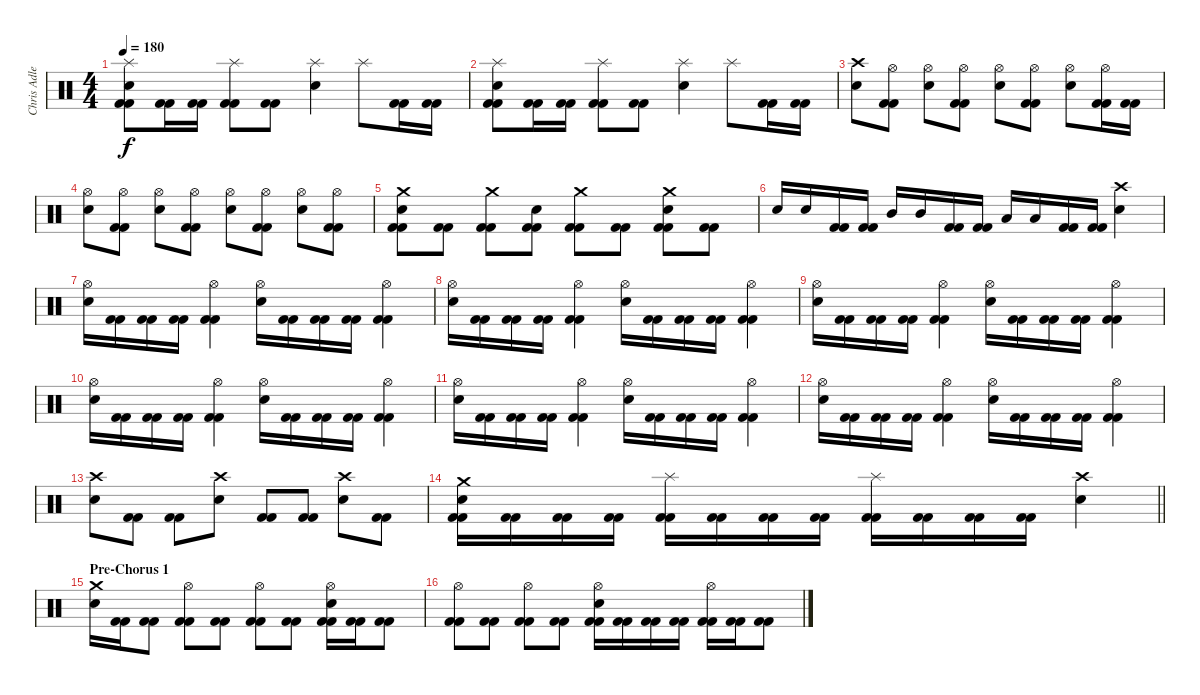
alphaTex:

\track ("Chris Adler" "Chris Adle") {instrument percussion}
\staff {score}
\articulation defaults
\ts (4 4)
\tempo 180
\clef neutral
\ks c
("Splash (hit)" "Electric Snare (hit)" "Kick (hit) 2" "Kick (hit) 2").8{dy f} ("Kick (hit) 2" "Kick (hit) 2").16 ("Kick (hit) 2" "Kick (hit) 2").16 ("Splash (hit)" "Kick (hit) 2" "Kick (hit) 2").8 ("Kick (hit) 2" "Kick (hit) 2").8 ("Splash (hit)" "Electric Snare (hit)").4 "Splash (hit)".8 ("Kick (hit) 2" "Kick (hit) 2").16 ("Kick (hit) 2" "Kick (hit) 2").16 |
("Splash (hit)" "Electric Snare (hit)" "Kick (hit) 2" "Kick (hit) 2").8 ("Kick (hit) 2" "Kick (hit) 2").16 ("Kick (hit) 2" "Kick (hit) 2").16 ("Splash (hit)" "Kick (hit) 2" "Kick (hit) 2").8 ("Kick (hit) 2" "Kick (hit) 2").8 ("Splash (hit)" "Electric Snare (hit)").4 "Splash (hit)".8 ("Kick (hit) 2" "Kick (hit) 2").16 ("Kick (hit) 2" "Kick (hit) 2").16 |
("Crash high (hit)" "Electric Snare (hit)").8 ("Hi-Hat (open)" "Kick (hit) 2" "Kick (hit) 2").8 ("Hi-Hat (open)" "Electric Snare (hit)").8 ("Hi-Hat (open)" "Kick (hit) 2" "Kick (hit) 2").8 ("Hi-Hat (open)" "Electric Snare (hit)").8 ("Hi-Hat (open)" "Kick (hit) 2" "Kick (hit) 2").8 ("Hi-Hat (open)" "Electric Snare (hit)").8 ("Hi-Hat (open)" "Kick (hit) 2" "Kick (hit) 2").16 ("Kick (hit) 2" "Kick (hit) 2").16 |
("Hi-Hat (open)" "Electric Snare (hit)").8 ("Hi-Hat (open)" "Kick (hit) 2" "Kick (hit) 2").8 ("Hi-Hat (open)" "Electric Snare (hit)").8 ("Hi-Hat (open)" "Kick (hit) 2" "Kick (hit) 2").8 ("Hi-Hat (open)" "Electric Snare (hit)").8 ("Hi-Hat (open)" "Kick (hit) 2" "Kick (hit) 2").8 ("Hi-Hat (open)" "Electric Snare (hit)").8 ("Hi-Hat (open)" "Kick (hit) 2" "Kick (hit) 2").8 |
("Crash medium (hit)" "Electric Snare (hit)" "Kick (hit) 2" "Kick (hit) 2").8 ("Kick (hit) 2" "Kick (hit) 2").8 ("Crash medium (hit)" "Kick (hit) 2" "Kick (hit) 2").8 ("Electric Snare (hit)" "Kick (hit) 2" "Kick (hit) 2").8 ("Crash medium (hit)" "Kick (hit) 2" "Kick (hit) 2").8 ("Kick (hit) 2" "Kick (hit) 2").8 ("Crash medium (hit)" "Electric Snare (hit)" "Kick (hit) 2" "Kick (hit) 2").8 ("Kick (hit) 2" "Kick (hit) 2").8 |
"Electric Snare (hit)".16 "Electric Snare (hit)".16 ("Kick (hit) 2" "Kick (hit) 2").16 ("Kick (hit) 2" "Kick (hit) 2").16 "Mid Tom (hit)".16 "Mid Tom (hit)".16 ("Kick (hit) 2" "Kick (hit) 2").16 ("Kick (hit) 2" "Kick (hit) 2").16 "Low Tom (hit)".16 "Low Tom (hit)".16 ("Kick (hit) 2" "Kick (hit) 2").16 ("Kick (hit) 2" "Kick (hit) 2").16 ("Crash high (hit)" "Electric Snare (hit)").4 |
("Hi-Hat (open)" "Electric Snare (hit)").16 ("Kick (hit) 2" "Kick (hit) 2").16 ("Kick (hit) 2" "Kick (hit) 2").16 ("Kick (hit) 2" "Kick (hit) 2").16 ("Hi-Hat (open)" "Kick (hit) 2" "Kick (hit) 2").4 ("Hi-Hat (open)" "Electric Snare (hit)").16 ("Kick (hit) 2" "Kick (hit) 2").16 ("Kick (hit) 2" "Kick (hit) 2").16 ("Kick (hit) 2" "Kick (hit) 2").16 ("Hi-Hat (open)" "Kick (hit) 2" "Kick (hit) 2").4 |
("Hi-Hat (open)" "Electric Snare (hit)").16 ("Kick (hit) 2" "Kick (hit) 2").16 ("Kick (hit) 2" "Kick (hit) 2").16 ("Kick (hit) 2" "Kick (hit) 2").16 ("Hi-Hat (open)" "Kick (hit) 2" "Kick (hit) 2").4 ("Hi-Hat (open)" "Electric Snare (hit)").16 ("Kick (hit) 2" "Kick (hit) 2").16 ("Kick (hit) 2" "Kick (hit) 2").16 ("Kick (hit) 2" "Kick (hit) 2").16 ("Hi-Hat (open)" "Kick (hit) 2" "Kick (hit) 2").4 |
("Hi-Hat (open)" "Electric Snare (hit)").16 ("Kick (hit) 2" "Kick (hit) 2").16 ("Kick (hit) 2" "Kick (hit) 2").16 ("Kick (hit) 2" "Kick (hit) 2").16 ("Hi-Hat (open)" "Kick (hit) 2" "Kick (hit) 2").4 ("Hi-Hat (open)" "Electric Snare (hit)").16 ("Kick (hit) 2" "Kick (hit) 2").16 ("Kick (hit) 2" "Kick (hit) 2").16 ("Kick (hit) 2" "Kick (hit) 2").16 ("Hi-Hat (open)" "Kick (hit) 2" "Kick (hit) 2").4 |
("Hi-Hat (open)" "Electric Snare (hit)").16 ("Kick (hit) 2" "Kick (hit) 2").16 ("Kick (hit) 2" "Kick (hit) 2").16 ("Kick (hit) 2" "Kick (hit) 2").16 ("Hi-Hat (open)" "Kick (hit) 2" "Kick (hit) 2").4 ("Hi-Hat (open)" "Electric Snare (hit)").16 ("Kick (hit) 2" "Kick (hit) 2").16 ("Kick (hit) 2" "Kick (hit) 2").16 ("Kick (hit) 2" "Kick (hit) 2").16 ("Hi-Hat (open)" "Kick (hit) 2" "Kick (hit) 2").4 |
("Hi-Hat (open)" "Electric Snare (hit)").16 ("Kick (hit) 2" "Kick (hit) 2").16 ("Kick (hit) 2" "Kick (hit) 2").16 ("Kick (hit) 2" "Kick (hit) 2").16 ("Hi-Hat (open)" "Kick (hit) 2" "Kick (hit) 2").4 ("Hi-Hat (open)" "Electric Snare (hit)").16 ("Kick (hit) 2" "Kick (hit) 2").16 ("Kick (hit) 2" "Kick (hit) 2").16 ("Kick (hit) 2" "Kick (hit) 2").16 ("Hi-Hat (open)" "Kick (hit) 2" "Kick (hit) 2").4 |
("Hi-Hat (open)" "Electric Snare (hit)").16 ("Kick (hit) 2" "Kick (hit) 2").16 ("Kick (hit) 2" "Kick (hit) 2").16 ("Kick (hit) 2" "Kick (hit) 2").16 ("Hi-Hat (open)" "Kick (hit) 2" "Kick (hit) 2").4 ("Hi-Hat (open)" "Electric Snare (hit)").16 ("Kick (hit) 2" "Kick (hit) 2").16 ("Kick (hit) 2" "Kick (hit) 2").16 ("Kick (hit) 2" "Kick (hit) 2").16 ("Hi-Hat (open)" "Kick (hit) 2" "Kick (hit) 2").4 |
("Crash high (hit)" "Electric Snare (hit)").8 ("Kick (hit) 2" "Kick (hit) 2").8 ("Kick (hit) 2" "Kick (hit) 2").8 ("Crash high (hit)" "Electric Snare (hit)").8 ("Kick (hit) 2" "Kick (hit) 2").8 ("Kick (hit) 2" "Kick (hit) 2").8 ("Crash high (hit)" "Electric Snare (hit)").8 ("Kick (hit) 2" "Kick (hit) 2").8 |
\barLineRight lightlight
("Crash medium (hit)" "Electric Snare (hit)" "Kick (hit) 2" "Kick (hit) 2").16 ("Kick (hit) 2" "Kick (hit) 2").16 ("Kick (hit) 2" "Kick (hit) 2").16 ("Kick (hit) 2" "Kick (hit) 2").16 ("Splash (hit)" "Kick (hit) 2" "Kick (hit) 2").16 ("Kick (hit) 2" "Kick (hit) 2").16 ("Kick (hit) 2" "Kick (hit) 2").16 ("Kick (hit) 2" "Kick (hit) 2").16 ("Splash (hit)" "Kick (hit) 2" "Kick (hit) 2").16 ("Kick (hit) 2" "Kick (hit) 2").16 ("Kick (hit) 2" "Kick (hit) 2").16 ("Kick (hit) 2" "Kick (hit) 2").16 ("Crash high (hit)" "Electric Snare (hit)").4 |
\section ("" "Pre-Chorus 1")
("Crash medium (hit)" "Electric Snare (hit)").16 ("Kick (hit) 2" "Kick (hit) 2").16 ("Kick (hit) 2" "Kick (hit) 2").8 ("Hi-Hat (open)" "Kick (hit) 2" "Kick (hit) 2").8 ("Kick (hit) 2" "Kick (hit) 2").8 ("Hi-Hat (open)" "Kick (hit) 2" "Kick (hit) 2").8 ("Kick (hit) 2" "Kick (hit) 2").8 ("Hi-Hat (open)" "Electric Snare (hit)" "Kick (hit) 2" "Kick (hit) 2").16 ("Kick (hit) 2" "Kick (hit) 2").16 ("Kick (hit) 2" "Kick (hit) 2").8 |
("Hi-Hat (open)" "Kick (hit) 2" "Kick (hit) 2").8 ("Kick (hit) 2" "Kick (hit) 2").8 ("Hi-Hat (open)" "Kick (hit) 2" "Kick (hit) 2").8 ("Kick (hit) 2" "Kick (hit) 2").8 ("Hi-Hat (open)" "Electric Snare (hit)" "Kick (hit) 2" "Kick (hit) 2").16 ("Kick (hit) 2" "Kick (hit) 2").16 ("Kick (hit) 2" "Kick (hit) 2").16 ("Kick (hit) 2" "Kick (hit) 2").16 ("Hi-Hat (open)" "Kick (hit) 2" "Kick (hit) 2").16 ("Kick (hit) 2" "Kick (hit) 2").16 ("Kick (hit) 2" "Kick (hit) 2").8
